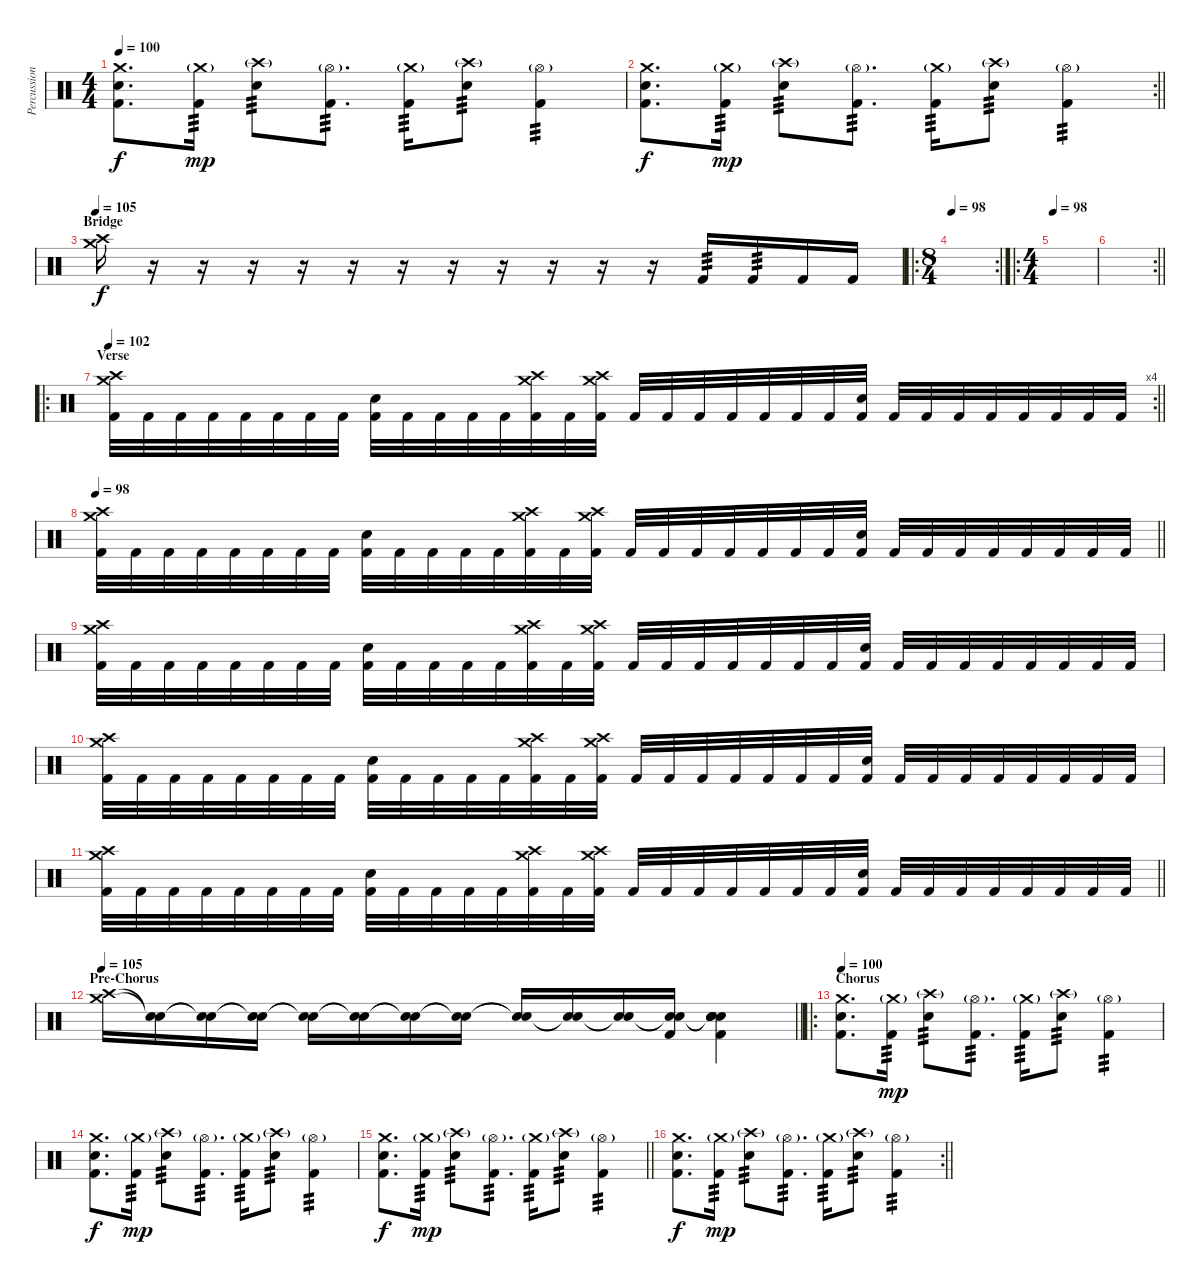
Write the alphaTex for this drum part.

\track ("Percussions" "Percussion") {instrument percussion}
\staff {score}
\articulation defaults
\ts (4 4)
\tempo 100
\clef neutral
\ks c
("Crash medium (hit)" "Electric Snare (hit)" "Kick (hit) 2").8{d dy f} ("Crash medium (hit)"{g} "Kick (hit) 2").16{tp 3 dy mp} ("Crash high (hit)"{g} "Electric Snare (hit)").8{tp 3} ("Hi-Hat (open)"{g} "Kick (hit) 2").8{d tp 3} ("Crash medium (hit)"{g} "Kick (hit) 2").16{tp 3} ("Crash high (hit)"{g} "Electric Snare (hit)").8{tp 3} ("Hi-Hat (open)"{g} "Kick (hit) 2").4{tp 3} |
\rc 2
\barLineRight lightlight
("Crash medium (hit)" "Electric Snare (hit)" "Kick (hit) 2").8{d dy f} ("Crash medium (hit)"{g} "Kick (hit) 2").16{tp 3 dy mp} ("Crash high (hit)"{g} "Electric Snare (hit)").8{tp 3} ("Hi-Hat (open)"{g} "Kick (hit) 2").8{d tp 3} ("Crash medium (hit)"{g} "Kick (hit) 2").16{tp 3} ("Crash high (hit)"{g} "Electric Snare (hit)").8{tp 3} ("Hi-Hat (open)"{g} "Kick (hit) 2").4{tp 3} |
\section ("" "Bridge")
\tempo 105
("Crash medium (hit)" "Crash high (hit)").16{dy f} r.16 r.16 r.16 r.16 r.16 r.16 r.16 r.16 r.16 r.16 r.16 "Kick (hit) 2".16{tp 3} "Kick (hit) 2".16{tp 3} "Kick (hit) 2".16 "Kick (hit) 2".16 |
\ro
\rc 2
\ts (8 4)
\tempo 98
|
\ro
\ts (4 4)
\tempo 98
|
\rc 2
\barLineRight lightlight
|
\ro
\rc 4
\section ("" "Verse")
\tempo 102
\barLineRight lightlight
("Crash medium (hit)" "Crash high (hit)" "Kick (hit) 2").32 "Kick (hit) 2".32 "Kick (hit) 2".32 "Kick (hit) 2".32 "Kick (hit) 2".32 "Kick (hit) 2".32 "Kick (hit) 2".32 "Kick (hit) 2".32 ("Electric Snare (hit)" "Kick (hit) 2").32 "Kick (hit) 2".32 "Kick (hit) 2".32 "Kick (hit) 2".32 "Kick (hit) 2".32 ("Crash medium (hit)" "Crash high (hit)" "Kick (hit) 2").32 "Kick (hit) 2".32 ("Crash medium (hit)" "Crash high (hit)" "Kick (hit) 2").32 "Kick (hit) 2".32 "Kick (hit) 2".32 "Kick (hit) 2".32 "Kick (hit) 2".32 "Kick (hit) 2".32 "Kick (hit) 2".32 "Kick (hit) 2".32 ("Electric Snare (hit)" "Kick (hit) 2").32 "Kick (hit) 2".32 "Kick (hit) 2".32 "Kick (hit) 2".32 "Kick (hit) 2".32 "Kick (hit) 2".32 "Kick (hit) 2".32 "Kick (hit) 2".32 "Kick (hit) 2".32 |
\tempo 98
\barLineRight lightlight
("Crash medium (hit)" "Crash high (hit)" "Kick (hit) 2").32 "Kick (hit) 2".32 "Kick (hit) 2".32 "Kick (hit) 2".32 "Kick (hit) 2".32 "Kick (hit) 2".32 "Kick (hit) 2".32 "Kick (hit) 2".32 ("Electric Snare (hit)" "Kick (hit) 2").32 "Kick (hit) 2".32 "Kick (hit) 2".32 "Kick (hit) 2".32 "Kick (hit) 2".32 ("Crash medium (hit)" "Crash high (hit)" "Kick (hit) 2").32 "Kick (hit) 2".32 ("Crash medium (hit)" "Crash high (hit)" "Kick (hit) 2").32 "Kick (hit) 2".32 "Kick (hit) 2".32 "Kick (hit) 2".32 "Kick (hit) 2".32 "Kick (hit) 2".32 "Kick (hit) 2".32 "Kick (hit) 2".32 ("Electric Snare (hit)" "Kick (hit) 2").32 "Kick (hit) 2".32 "Kick (hit) 2".32 "Kick (hit) 2".32 "Kick (hit) 2".32 "Kick (hit) 2".32 "Kick (hit) 2".32 "Kick (hit) 2".32 "Kick (hit) 2".32 |
("Crash medium (hit)" "Crash high (hit)" "Kick (hit) 2").32 "Kick (hit) 2".32 "Kick (hit) 2".32 "Kick (hit) 2".32 "Kick (hit) 2".32 "Kick (hit) 2".32 "Kick (hit) 2".32 "Kick (hit) 2".32 ("Electric Snare (hit)" "Kick (hit) 2").32 "Kick (hit) 2".32 "Kick (hit) 2".32 "Kick (hit) 2".32 "Kick (hit) 2".32 ("Crash medium (hit)" "Crash high (hit)" "Kick (hit) 2").32 "Kick (hit) 2".32 ("Crash medium (hit)" "Crash high (hit)" "Kick (hit) 2").32 "Kick (hit) 2".32 "Kick (hit) 2".32 "Kick (hit) 2".32 "Kick (hit) 2".32 "Kick (hit) 2".32 "Kick (hit) 2".32 "Kick (hit) 2".32 ("Electric Snare (hit)" "Kick (hit) 2").32 "Kick (hit) 2".32 "Kick (hit) 2".32 "Kick (hit) 2".32 "Kick (hit) 2".32 "Kick (hit) 2".32 "Kick (hit) 2".32 "Kick (hit) 2".32 "Kick (hit) 2".32 |
("Crash medium (hit)" "Crash high (hit)" "Kick (hit) 2").32 "Kick (hit) 2".32 "Kick (hit) 2".32 "Kick (hit) 2".32 "Kick (hit) 2".32 "Kick (hit) 2".32 "Kick (hit) 2".32 "Kick (hit) 2".32 ("Electric Snare (hit)" "Kick (hit) 2").32 "Kick (hit) 2".32 "Kick (hit) 2".32 "Kick (hit) 2".32 "Kick (hit) 2".32 ("Crash medium (hit)" "Crash high (hit)" "Kick (hit) 2").32 "Kick (hit) 2".32 ("Crash medium (hit)" "Crash high (hit)" "Kick (hit) 2").32 "Kick (hit) 2".32 "Kick (hit) 2".32 "Kick (hit) 2".32 "Kick (hit) 2".32 "Kick (hit) 2".32 "Kick (hit) 2".32 "Kick (hit) 2".32 ("Electric Snare (hit)" "Kick (hit) 2").32 "Kick (hit) 2".32 "Kick (hit) 2".32 "Kick (hit) 2".32 "Kick (hit) 2".32 "Kick (hit) 2".32 "Kick (hit) 2".32 "Kick (hit) 2".32 "Kick (hit) 2".32 |
\barLineRight lightlight
("Crash medium (hit)" "Crash high (hit)" "Kick (hit) 2").32 "Kick (hit) 2".32 "Kick (hit) 2".32 "Kick (hit) 2".32 "Kick (hit) 2".32 "Kick (hit) 2".32 "Kick (hit) 2".32 "Kick (hit) 2".32 ("Electric Snare (hit)" "Kick (hit) 2").32 "Kick (hit) 2".32 "Kick (hit) 2".32 "Kick (hit) 2".32 "Kick (hit) 2".32 ("Crash medium (hit)" "Crash high (hit)" "Kick (hit) 2").32 "Kick (hit) 2".32 ("Crash medium (hit)" "Crash high (hit)" "Kick (hit) 2").32 "Kick (hit) 2".32 "Kick (hit) 2".32 "Kick (hit) 2".32 "Kick (hit) 2".32 "Kick (hit) 2".32 "Kick (hit) 2".32 "Kick (hit) 2".32 ("Electric Snare (hit)" "Kick (hit) 2").32 "Kick (hit) 2".32 "Kick (hit) 2".32 "Kick (hit) 2".32 "Kick (hit) 2".32 "Kick (hit) 2".32 "Kick (hit) 2".32 "Kick (hit) 2".32 "Kick (hit) 2".32 |
\section ("" "Pre-Chorus")
\tempo 105
\barLineRight lightlight
("Crash medium (hit)" "Crash high (hit)").16 ("Snare (hit)"{t} "Snare (hit)"{t}).16 ("Snare (hit)"{t} "Snare (hit)"{t}).16 ("Snare (hit)"{t} "Snare (hit)"{t}).16 ("Snare (hit)"{t} "Snare (hit)"{t}).16 ("Snare (hit)"{t} "Snare (hit)"{t}).16 ("Snare (hit)"{t} "Snare (hit)"{t}).16 ("Snare (hit)"{t} "Snare (hit)"{t}).16 ("Snare (hit)"{t} "Snare (hit)"{t}).16 ("Snare (hit)"{t} "Snare (hit)"{t}).16 ("Snare (hit)"{t} "Snare (hit)"{t}).16 ("Snare (hit)"{t} "Snare (hit)"{t} "Kick (hit) 2").16 ("Snare (hit)"{t} "Snare (hit)"{t} "Snare (hit) 2" "Electric Snare (hit)" "Kick (hit) 2").4 |
\ro
\section ("" "Chorus")
\tempo 100
("Crash medium (hit)" "Electric Snare (hit)" "Kick (hit) 2").8{d} ("Crash medium (hit)"{g} "Kick (hit) 2").16{tp 3 dy mp} ("Crash high (hit)"{g} "Electric Snare (hit)").8{tp 3} ("Hi-Hat (open)"{g} "Kick (hit) 2").8{d tp 3} ("Crash medium (hit)"{g} "Kick (hit) 2").16{tp 3} ("Crash high (hit)"{g} "Electric Snare (hit)").8{tp 3} ("Hi-Hat (open)"{g} "Kick (hit) 2").4{tp 3} |
("Crash medium (hit)" "Electric Snare (hit)" "Kick (hit) 2").8{d dy f} ("Crash medium (hit)"{g} "Kick (hit) 2").16{tp 3 dy mp} ("Crash high (hit)"{g} "Electric Snare (hit)").8{tp 3} ("Hi-Hat (open)"{g} "Kick (hit) 2").8{d tp 3} ("Crash medium (hit)"{g} "Kick (hit) 2").16{tp 3} ("Crash high (hit)"{g} "Electric Snare (hit)").8{tp 3} ("Hi-Hat (open)"{g} "Kick (hit) 2").4{tp 3} |
\barLineRight lightlight
("Crash medium (hit)" "Electric Snare (hit)" "Kick (hit) 2").8{d dy f} ("Crash medium (hit)"{g} "Kick (hit) 2").16{tp 3 dy mp} ("Crash high (hit)"{g} "Electric Snare (hit)").8{tp 3} ("Hi-Hat (open)"{g} "Kick (hit) 2").8{d tp 3} ("Crash medium (hit)"{g} "Kick (hit) 2").16{tp 3} ("Crash high (hit)"{g} "Electric Snare (hit)").8{tp 3} ("Hi-Hat (open)"{g} "Kick (hit) 2").4{tp 3} |
\rc 2
\section ("" "")
\barLineRight lightlight
("Crash medium (hit)" "Electric Snare (hit)" "Kick (hit) 2").8{d dy f} ("Crash medium (hit)"{g} "Kick (hit) 2").16{tp 3 dy mp} ("Crash high (hit)"{g} "Electric Snare (hit)").8{tp 3} ("Hi-Hat (open)"{g} "Kick (hit) 2").8{d tp 3} ("Crash medium (hit)"{g} "Kick (hit) 2").16{tp 3} ("Crash high (hit)"{g} "Electric Snare (hit)").8{tp 3} ("Hi-Hat (open)"{g} "Kick (hit) 2").4{tp 3}
